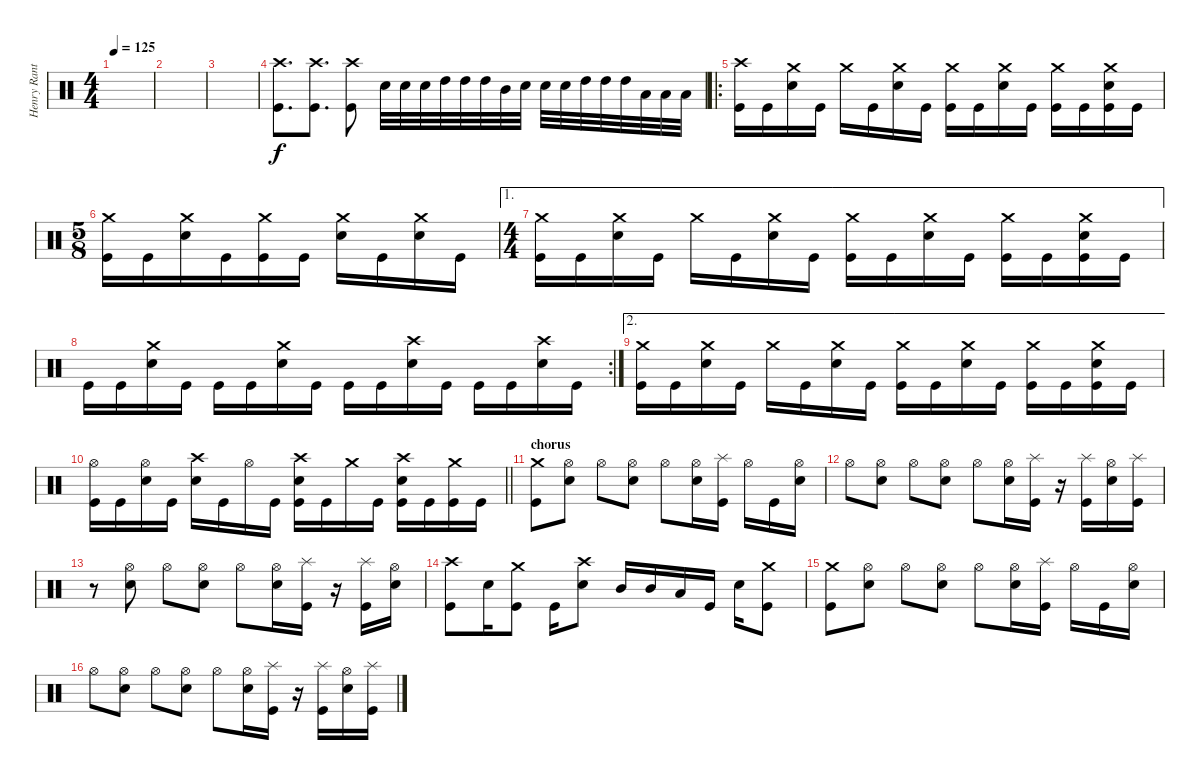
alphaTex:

\track ("Henry Ranta" "Henry Rant") {instrument percussion}
\staff {score}
\articulation defaults
\ts (4 4)
\tempo 125
\clef neutral
\ks c
|
|
|
("Crash high (hit)" "Kick (hit)").8{d} ("Crash high (hit)" "Kick (hit)").8{d} ("Crash high (hit)" "Kick (hit)").8 "Electric Snare (hit)".32 "Electric Snare (hit)".32 "Electric Snare (hit)".32 "High Tom (hit)".32 "High Tom (hit)".32 "High Tom (hit)".32 "Mid Tom (hit)".32 "Electric Snare (hit)".32 "Electric Snare (hit)".32 "Electric Snare (hit)".32 "High Tom (hit)".32 "High Tom (hit)".32 "High Tom (hit)".32 "Low Tom (hit)".32 "Low Tom (hit)".32 "Low Tom (hit)".32 |
\ro
("Crash high (hit)" "Kick (hit)").16 "Kick (hit)".16 ("Crash medium (hit)" "Electric Snare (hit)").16 "Kick (hit)".16 "Crash medium (hit)".16 "Kick (hit)".16 ("Crash medium (hit)" "Electric Snare (hit)").16 "Kick (hit)".16 ("Crash medium (hit)" "Kick (hit)").16 "Kick (hit)".16 ("Crash medium (hit)" "Electric Snare (hit)").16 "Kick (hit)".16 ("Crash medium (hit)" "Kick (hit)").16 "Kick (hit)".16 ("Crash medium (hit)" "Electric Snare (hit)" "Kick (hit)").16 "Kick (hit)".16 |
\ts (5 8)
("Crash medium (hit)" "Kick (hit)").16 "Kick (hit)".16 ("Crash medium (hit)" "Electric Snare (hit)").16 "Kick (hit)".16 ("Crash medium (hit)" "Kick (hit)").16 "Kick (hit)".16 ("Crash medium (hit)" "Electric Snare (hit)").16 "Kick (hit)".16 ("Crash medium (hit)" "Electric Snare (hit)").16 "Kick (hit)".16 |
\ae 1
\ts (4 4)
("Crash medium (hit)" "Kick (hit)").16 "Kick (hit)".16 ("Crash medium (hit)" "Electric Snare (hit)").16 "Kick (hit)".16 "Crash medium (hit)".16 "Kick (hit)".16 ("Crash medium (hit)" "Electric Snare (hit)").16 "Kick (hit)".16 ("Crash medium (hit)" "Kick (hit)").16 "Kick (hit)".16 ("Crash medium (hit)" "Electric Snare (hit)").16 "Kick (hit)".16 ("Crash medium (hit)" "Kick (hit)").16 "Kick (hit)".16 ("Crash medium (hit)" "Electric Snare (hit)" "Kick (hit)").16 "Kick (hit)".16 |
\rc 2 "Kick (hit)".16 "Kick (hit)".16
("Crash medium (hit)" "Electric Snare (hit)").16 "Kick (hit)".16 "Kick (hit)".16 "Kick (hit)".16 ("Crash medium (hit)" "Electric Snare (hit)").16 "Kick (hit)".16 "Kick (hit)".16 "Kick (hit)".16 ("Crash high (hit)" "Electric Snare (hit)").16 "Kick (hit)".16 "Kick (hit)".16 "Kick (hit)".16 ("Crash high (hit)" "Electric Snare (hit)").16 "Kick (hit)".16 |
\ae 2
("Crash medium (hit)" "Kick (hit)").16 "Kick (hit)".16 ("Crash medium (hit)" "Electric Snare (hit)").16 "Kick (hit)".16 "Crash medium (hit)".16 "Kick (hit)".16 ("Crash medium (hit)" "Electric Snare (hit)").16 "Kick (hit)".16 ("Crash medium (hit)" "Kick (hit)").16 "Kick (hit)".16 ("Crash medium (hit)" "Electric Snare (hit)").16 "Kick (hit)".16 ("Crash medium (hit)" "Kick (hit)").16 "Kick (hit)".16 ("Crash medium (hit)" "Electric Snare (hit)" "Kick (hit)").16 "Kick (hit)".16 |
\barLineRight lightlight
("Hi-Hat (open)" "Kick (hit)").16 "Kick (hit)".16 ("Hi-Hat (open)" "Electric Snare (hit)").16 "Kick (hit)".16 ("Crash high (hit)" "Electric Snare (hit)").16 "Kick (hit)".16 "Hi-Hat (open)".16 "Kick (hit)".16 ("Crash high (hit)" "Electric Snare (hit)" "Kick (hit)").16 "Kick (hit)".16 "Crash medium (hit)".16 "Kick (hit)".16 ("Crash high (hit)" "Electric Snare (hit)" "Kick (hit)").16 "Kick (hit)".16 ("Crash medium (hit)" "Kick (hit)").16 "Kick (hit)".16 |
\section ("" "chorus")
("Crash medium (hit)" "Kick (hit)").8 ("Hi-Hat (open)" "Electric Snare (hit)").8 "Hi-Hat (open)".8 ("Hi-Hat (open)" "Electric Snare (hit)").8 "Hi-Hat (open)".8 ("Hi-Hat (open)" "Electric Snare (hit)").16 ("Splash (hit)" "Kick (hit)").16 "Hi-Hat (open)".16 "Kick (hit)".16 ("Hi-Hat (open)" "Electric Snare (hit)").16 |
"Hi-Hat (open)".8 ("Hi-Hat (open)" "Electric Snare (hit)").8 "Hi-Hat (open)".8 ("Hi-Hat (open)" "Electric Snare (hit)").8 "Hi-Hat (open)".8 ("Hi-Hat (open)" "Electric Snare (hit)").16 ("Splash (hit)" "Kick (hit)").16 r.16 ("Splash (hit)" "Kick (hit)").16 ("Hi-Hat (open)" "Electric Snare (hit)").16 ("Splash (hit)" "Kick (hit)").16 |
r.8 ("Hi-Hat (open)" "Electric Snare (hit)").8 "Hi-Hat (open)".8 ("Hi-Hat (open)" "Electric Snare (hit)").8 "Hi-Hat (open)".8 ("Hi-Hat (open)" "Electric Snare (hit)").16 ("Splash (hit)" "Kick (hit)").16 r.16 ("Splash (hit)" "Kick (hit)").16 ("Hi-Hat (open)" "Electric Snare (hit)").16 |
("Crash high (hit)" "Kick (hit)").8 "Electric Snare (hit)".16 ("Crash medium (hit)" "Kick (hit)").8 "Kick (hit)".16 ("Crash high (hit)" "Electric Snare (hit)").8 "Mid Tom (hit)".16 "Mid Tom (hit)".16 "Low Tom (hit)".16 "Kick (hit)".16 "Electric Snare (hit)".16 ("Crash medium (hit)" "Kick (hit)").8 |
("Crash medium (hit)" "Kick (hit)").8 ("Hi-Hat (open)" "Electric Snare (hit)").8 "Hi-Hat (open)".8 ("Hi-Hat (open)" "Electric Snare (hit)").8 "Hi-Hat (open)".8 ("Hi-Hat (open)" "Electric Snare (hit)").16 ("Splash (hit)" "Kick (hit)").16 "Hi-Hat (open)".16 "Kick (hit)".16 ("Hi-Hat (open)" "Electric Snare (hit)").16 |
"Hi-Hat (open)".8 ("Hi-Hat (open)" "Electric Snare (hit)").8 "Hi-Hat (open)".8 ("Hi-Hat (open)" "Electric Snare (hit)").8 "Hi-Hat (open)".8 ("Hi-Hat (open)" "Electric Snare (hit)").16 ("Splash (hit)" "Kick (hit)").16 r.16 ("Splash (hit)" "Kick (hit)").16 ("Hi-Hat (open)" "Electric Snare (hit)").16 ("Splash (hit)" "Kick (hit)").16
